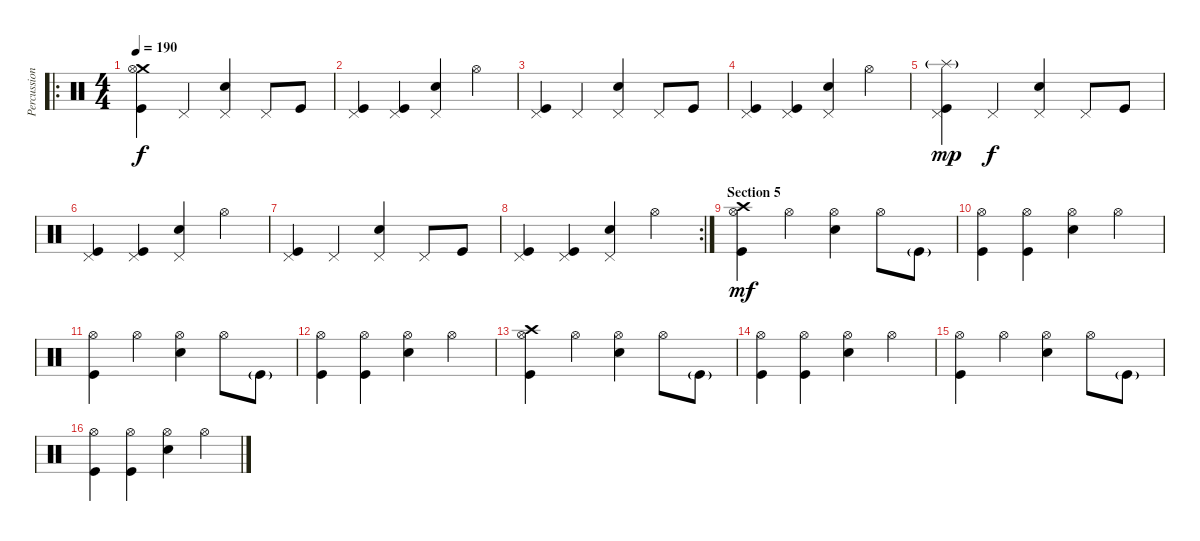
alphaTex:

\track ("Percussion" "Percussion") {instrument percussion}
\staff {score}
\articulation defaults
\ro
\ts (4 4)
\tempo 190
\clef neutral
\ks c
("Crash medium (hit)" "Kick (hit)" "Hi-Hat (open)").4{dy f} "Pedal Hi-Hat (hit)".4 ("Electric Snare (hit)" "Pedal Hi-Hat (hit)").4 "Pedal Hi-Hat (hit)".8 "Kick (hit)".8 |
("Kick (hit)" "Pedal Hi-Hat (hit)").4 ("Kick (hit)" "Pedal Hi-Hat (hit)").4 ("Electric Snare (hit)" "Pedal Hi-Hat (hit)").4 "Hi-Hat (open)".4 |
("Kick (hit)" "Pedal Hi-Hat (hit)").4 "Pedal Hi-Hat (hit)".4 ("Electric Snare (hit)" "Pedal Hi-Hat (hit)").4 "Pedal Hi-Hat (hit)".8 "Kick (hit)".8 |
("Kick (hit)" "Pedal Hi-Hat (hit)").4 ("Kick (hit)" "Pedal Hi-Hat (hit)").4 ("Electric Snare (hit)" "Pedal Hi-Hat (hit)").4 "Hi-Hat (open)".4 |
("Splash (hit)"{g} "Kick (hit)" "Pedal Hi-Hat (hit)").4{dy mp} "Pedal Hi-Hat (hit)".4{dy f} ("Electric Snare (hit)" "Pedal Hi-Hat (hit)").4 "Pedal Hi-Hat (hit)".8 "Kick (hit)".8 |
("Kick (hit)" "Pedal Hi-Hat (hit)").4 ("Kick (hit)" "Pedal Hi-Hat (hit)").4 ("Electric Snare (hit)" "Pedal Hi-Hat (hit)").4 "Hi-Hat (open)".4 |
("Kick (hit)" "Pedal Hi-Hat (hit)").4 "Pedal Hi-Hat (hit)".4 ("Electric Snare (hit)" "Pedal Hi-Hat (hit)").4 "Pedal Hi-Hat (hit)".8 "Kick (hit)".8 |
\rc 2
("Kick (hit)" "Pedal Hi-Hat (hit)").4 ("Kick (hit)" "Pedal Hi-Hat (hit)").4 ("Electric Snare (hit)" "Pedal Hi-Hat (hit)").4 "Hi-Hat (open)".4 |
\section ("" "Section 5")
("Crash high (hit)" "Kick (hit)" "Hi-Hat (open)").4{dy mf} "Hi-Hat (open)".4 ("Electric Snare (hit)" "Hi-Hat (open)").4 "Hi-Hat (open)".8 "Kick (hit)"{g}.8 |
("Kick (hit)" "Hi-Hat (open)").4 ("Kick (hit)" "Hi-Hat (open)").4 ("Electric Snare (hit)" "Hi-Hat (open)").4 "Hi-Hat (open)".4 |
("Kick (hit)" "Hi-Hat (open)").4 "Hi-Hat (open)".4 ("Electric Snare (hit)" "Hi-Hat (open)").4 "Hi-Hat (open)".8 "Kick (hit)"{g}.8 |
("Kick (hit)" "Hi-Hat (open)").4 ("Kick (hit)" "Hi-Hat (open)").4 ("Electric Snare (hit)" "Hi-Hat (open)").4 "Hi-Hat (open)".4 |
("Crash high (hit)" "Kick (hit)" "Hi-Hat (open)").4 "Hi-Hat (open)".4 ("Electric Snare (hit)" "Hi-Hat (open)").4 "Hi-Hat (open)".8 "Kick (hit)"{g}.8 |
("Kick (hit)" "Hi-Hat (open)").4 ("Kick (hit)" "Hi-Hat (open)").4 ("Electric Snare (hit)" "Hi-Hat (open)").4 "Hi-Hat (open)".4 |
("Kick (hit)" "Hi-Hat (open)").4 "Hi-Hat (open)".4 ("Electric Snare (hit)" "Hi-Hat (open)").4 "Hi-Hat (open)".8 "Kick (hit)"{g}.8 |
("Kick (hit)" "Hi-Hat (open)").4 ("Kick (hit)" "Hi-Hat (open)").4 ("Electric Snare (hit)" "Hi-Hat (open)").4 "Hi-Hat (open)".4
